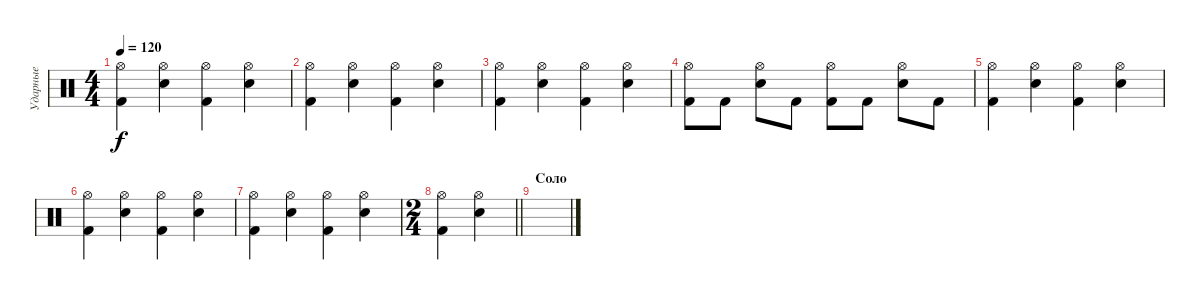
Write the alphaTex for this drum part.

\track ("Ударные" "Ударные") {instrument percussion}
\staff {score}
\articulation defaults
\ts (4 4)
\tempo 120
\clef neutral
\ks c
("Hi-Hat (open)" "Kick (hit) 2").4{dy f} ("Hi-Hat (open)" "Snare (hit) 2").4 ("Hi-Hat (open)" "Kick (hit) 2").4 ("Hi-Hat (open)" "Snare (hit) 2").4 |
("Hi-Hat (open)" "Kick (hit) 2").4 ("Hi-Hat (open)" "Snare (hit) 2").4 ("Hi-Hat (open)" "Kick (hit) 2").4 ("Hi-Hat (open)" "Snare (hit) 2").4 |
("Hi-Hat (open)" "Kick (hit) 2").4 ("Hi-Hat (open)" "Snare (hit) 2").4 ("Hi-Hat (open)" "Kick (hit) 2").4 ("Hi-Hat (open)" "Snare (hit) 2").4 |
("Hi-Hat (open)" "Kick (hit) 2").8 "Kick (hit) 2".8 ("Hi-Hat (open)" "Snare (hit) 2").8 "Kick (hit) 2".8 ("Hi-Hat (open)" "Kick (hit) 2").8 "Kick (hit) 2".8 ("Hi-Hat (open)" "Snare (hit) 2").8 "Kick (hit) 2".8 |
("Hi-Hat (open)" "Kick (hit) 2").4 ("Hi-Hat (open)" "Snare (hit) 2").4 ("Hi-Hat (open)" "Kick (hit) 2").4 ("Hi-Hat (open)" "Snare (hit) 2").4 |
("Hi-Hat (open)" "Kick (hit) 2").4 ("Hi-Hat (open)" "Snare (hit) 2").4 ("Hi-Hat (open)" "Kick (hit) 2").4 ("Hi-Hat (open)" "Snare (hit) 2").4 |
("Hi-Hat (open)" "Kick (hit) 2").4 ("Hi-Hat (open)" "Snare (hit) 2").4 ("Hi-Hat (open)" "Kick (hit) 2").4 ("Hi-Hat (open)" "Snare (hit) 2").4 |
\ts (2 4)
\barLineRight lightlight
("Hi-Hat (open)" "Kick (hit) 2").4 ("Hi-Hat (open)" "Snare (hit) 2").4 |
\section ("" "Соло")
